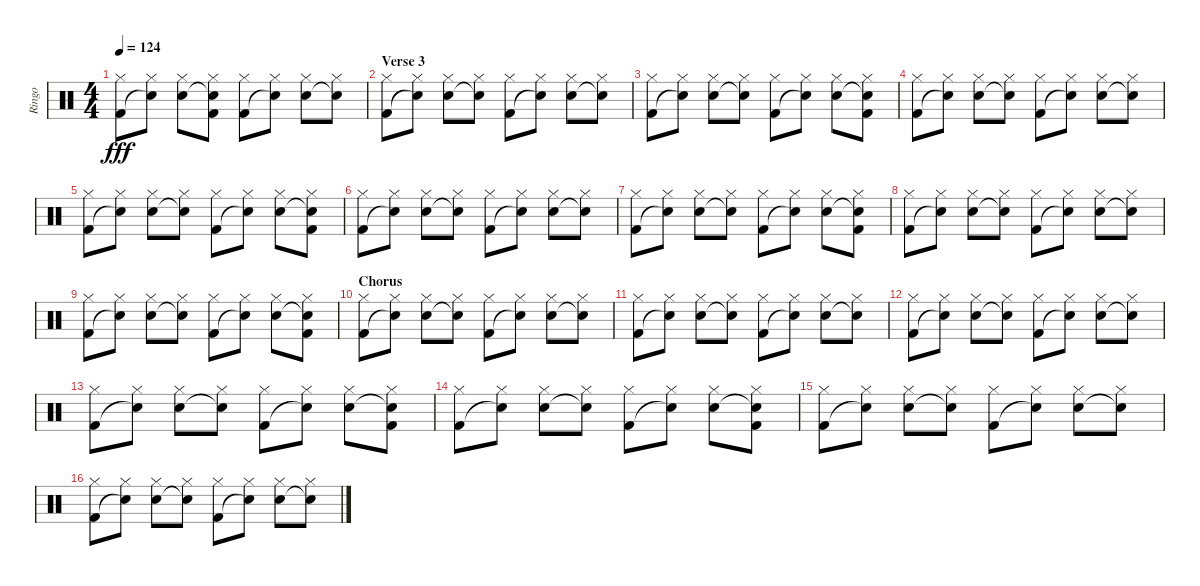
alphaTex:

\track ("Ringo" "Ringo") {instrument percussion}
\staff {score}
\articulation defaults
\ts (4 4)
\tempo 124
\clef neutral
\ks c
("Hi-Hat (closed)" "Kick (hit) 2").8{dy fff} ("Hi-Hat (closed)" "Snare (hit)"{t}).8 ("Hi-Hat (closed)" "Snare (hit) 2").8 ("Hi-Hat (closed)" "Snare (hit)"{t} "Kick (hit) 2").8 ("Hi-Hat (closed)" "Kick (hit) 2").8 ("Hi-Hat (closed)" "Snare (hit)"{t}).8 ("Hi-Hat (closed)" "Snare (hit) 2").8 ("Hi-Hat (closed)" "Snare (hit)"{t}).8 |
\section ("" "Verse 3")
("Hi-Hat (closed)" "Kick (hit) 2").8 ("Hi-Hat (closed)" "Snare (hit)"{t}).8 ("Hi-Hat (closed)" "Snare (hit) 2").8 ("Hi-Hat (closed)" "Snare (hit)"{t}).8 ("Hi-Hat (closed)" "Kick (hit) 2").8 ("Hi-Hat (closed)" "Snare (hit)"{t}).8 ("Hi-Hat (closed)" "Snare (hit) 2").8 ("Hi-Hat (closed)" "Snare (hit)"{t}).8 |
("Hi-Hat (closed)" "Kick (hit) 2").8 ("Hi-Hat (closed)" "Snare (hit)"{t}).8 ("Hi-Hat (closed)" "Snare (hit) 2").8 ("Hi-Hat (closed)" "Snare (hit)"{t}).8 ("Hi-Hat (closed)" "Kick (hit) 2").8 ("Hi-Hat (closed)" "Snare (hit)"{t}).8 ("Hi-Hat (closed)" "Snare (hit) 2").8 ("Hi-Hat (closed)" "Snare (hit)"{t} "Kick (hit) 2").8 |
("Hi-Hat (closed)" "Kick (hit) 2").8 ("Hi-Hat (closed)" "Snare (hit)"{t}).8 ("Hi-Hat (closed)" "Snare (hit) 2").8 ("Hi-Hat (closed)" "Snare (hit)"{t}).8 ("Hi-Hat (closed)" "Kick (hit) 2").8 ("Hi-Hat (closed)" "Snare (hit)"{t}).8 ("Hi-Hat (closed)" "Snare (hit) 2").8 ("Hi-Hat (closed)" "Snare (hit)"{t}).8 |
("Hi-Hat (closed)" "Kick (hit) 2").8 ("Hi-Hat (closed)" "Snare (hit)"{t}).8 ("Hi-Hat (closed)" "Snare (hit) 2").8 ("Hi-Hat (closed)" "Snare (hit)"{t}).8 ("Hi-Hat (closed)" "Kick (hit) 2").8 ("Hi-Hat (closed)" "Snare (hit)"{t}).8 ("Hi-Hat (closed)" "Snare (hit) 2").8 ("Hi-Hat (closed)" "Snare (hit)"{t} "Kick (hit) 2").8 |
("Hi-Hat (closed)" "Kick (hit) 2").8 ("Hi-Hat (closed)" "Snare (hit)"{t}).8 ("Hi-Hat (closed)" "Snare (hit) 2").8 ("Hi-Hat (closed)" "Snare (hit)"{t}).8 ("Hi-Hat (closed)" "Kick (hit) 2").8 ("Hi-Hat (closed)" "Snare (hit)"{t}).8 ("Hi-Hat (closed)" "Snare (hit) 2").8 ("Hi-Hat (closed)" "Snare (hit)"{t}).8 |
("Hi-Hat (closed)" "Kick (hit) 2").8 ("Hi-Hat (closed)" "Snare (hit)"{t}).8 ("Hi-Hat (closed)" "Snare (hit) 2").8 ("Hi-Hat (closed)" "Snare (hit)"{t}).8 ("Hi-Hat (closed)" "Kick (hit) 2").8 ("Hi-Hat (closed)" "Snare (hit)"{t}).8 ("Hi-Hat (closed)" "Snare (hit) 2").8 ("Hi-Hat (closed)" "Snare (hit)"{t} "Kick (hit) 2").8 |
("Hi-Hat (closed)" "Kick (hit) 2").8 ("Hi-Hat (closed)" "Snare (hit)"{t}).8 ("Hi-Hat (closed)" "Snare (hit) 2").8 ("Hi-Hat (closed)" "Snare (hit)"{t}).8 ("Hi-Hat (closed)" "Kick (hit) 2").8 ("Hi-Hat (closed)" "Snare (hit)"{t}).8 ("Hi-Hat (closed)" "Snare (hit) 2").8 ("Hi-Hat (closed)" "Snare (hit)"{t}).8 |
("Hi-Hat (closed)" "Kick (hit) 2").8 ("Hi-Hat (closed)" "Snare (hit)"{t}).8 ("Hi-Hat (closed)" "Snare (hit) 2").8 ("Hi-Hat (closed)" "Snare (hit)"{t}).8 ("Hi-Hat (closed)" "Kick (hit) 2").8 ("Hi-Hat (closed)" "Snare (hit)"{t}).8 ("Hi-Hat (closed)" "Snare (hit) 2").8 ("Hi-Hat (closed)" "Snare (hit)"{t} "Kick (hit) 2").8 |
\section ("" "Chorus")
("Hi-Hat (closed)" "Kick (hit) 2").8 ("Hi-Hat (closed)" "Snare (hit)"{t}).8 ("Hi-Hat (closed)" "Snare (hit) 2").8 ("Hi-Hat (closed)" "Snare (hit)"{t}).8 ("Hi-Hat (closed)" "Kick (hit) 2").8 ("Hi-Hat (closed)" "Snare (hit)"{t}).8 ("Hi-Hat (closed)" "Snare (hit) 2").8 ("Hi-Hat (closed)" "Snare (hit)"{t}).8 |
("Hi-Hat (closed)" "Kick (hit) 2").8 ("Hi-Hat (closed)" "Snare (hit)"{t}).8 ("Hi-Hat (closed)" "Snare (hit) 2").8 ("Hi-Hat (closed)" "Snare (hit)"{t}).8 ("Hi-Hat (closed)" "Kick (hit) 2").8 ("Hi-Hat (closed)" "Snare (hit)"{t}).8 ("Hi-Hat (closed)" "Snare (hit) 2").8 ("Hi-Hat (closed)" "Snare (hit)"{t}).8 |
("Hi-Hat (closed)" "Kick (hit) 2").8 ("Hi-Hat (closed)" "Snare (hit)"{t}).8 ("Hi-Hat (closed)" "Snare (hit) 2").8 ("Hi-Hat (closed)" "Snare (hit)"{t}).8 ("Hi-Hat (closed)" "Kick (hit) 2").8 ("Hi-Hat (closed)" "Snare (hit)"{t}).8 ("Hi-Hat (closed)" "Snare (hit) 2").8 ("Hi-Hat (closed)" "Snare (hit)"{t}).8 |
("Hi-Hat (closed)" "Kick (hit) 2").8 ("Hi-Hat (closed)" "Snare (hit)"{t}).8 ("Hi-Hat (closed)" "Snare (hit) 2").8 ("Hi-Hat (closed)" "Snare (hit)"{t}).8 ("Hi-Hat (closed)" "Kick (hit) 2").8 ("Hi-Hat (closed)" "Snare (hit)"{t}).8 ("Hi-Hat (closed)" "Snare (hit) 2").8 ("Hi-Hat (closed)" "Snare (hit)"{t} "Kick (hit) 2").8 |
("Hi-Hat (closed)" "Kick (hit) 2").8 ("Hi-Hat (closed)" "Snare (hit)"{t}).8 ("Hi-Hat (closed)" "Snare (hit) 2").8 ("Hi-Hat (closed)" "Snare (hit)"{t}).8 ("Hi-Hat (closed)" "Kick (hit) 2").8 ("Hi-Hat (closed)" "Snare (hit)"{t}).8 ("Hi-Hat (closed)" "Snare (hit) 2").8 ("Hi-Hat (closed)" "Snare (hit)"{t} "Kick (hit) 2").8 |
("Hi-Hat (closed)" "Kick (hit) 2").8 ("Hi-Hat (closed)" "Snare (hit)"{t}).8 ("Hi-Hat (closed)" "Snare (hit) 2").8 ("Hi-Hat (closed)" "Snare (hit)"{t}).8 ("Hi-Hat (closed)" "Kick (hit) 2").8 ("Hi-Hat (closed)" "Snare (hit)"{t}).8 ("Hi-Hat (closed)" "Snare (hit) 2").8 ("Hi-Hat (closed)" "Snare (hit)"{t}).8 |
("Hi-Hat (closed)" "Kick (hit) 2").8 ("Hi-Hat (closed)" "Snare (hit)"{t}).8 ("Hi-Hat (closed)" "Snare (hit) 2").8 ("Hi-Hat (closed)" "Snare (hit)"{t}).8 ("Hi-Hat (closed)" "Kick (hit) 2").8 ("Hi-Hat (closed)" "Snare (hit)"{t}).8 ("Hi-Hat (closed)" "Snare (hit) 2").8 ("Hi-Hat (closed)" "Snare (hit)"{t}).8
